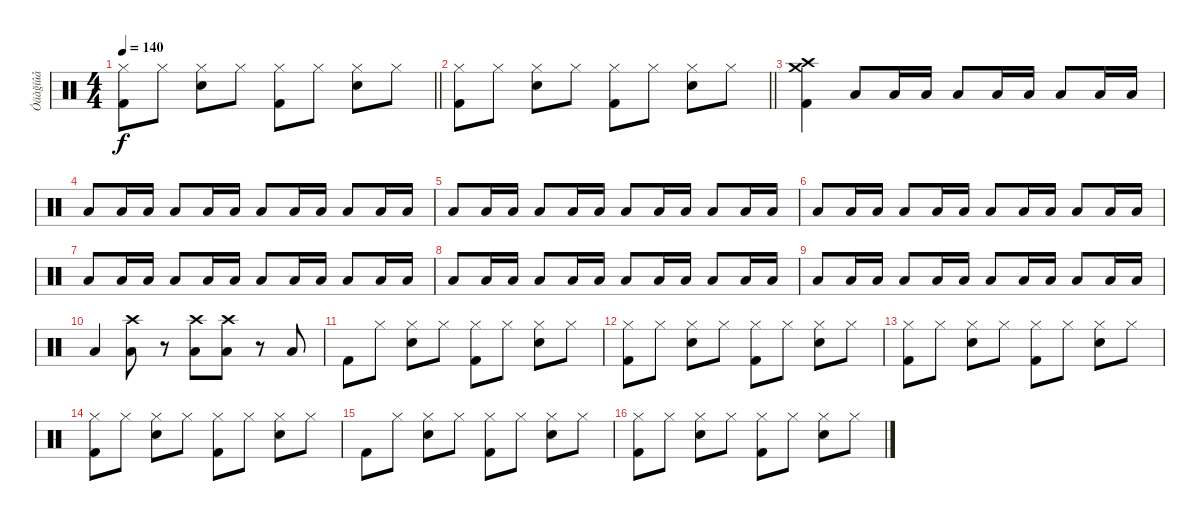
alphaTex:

\track ("Óäàğíûå" "Óäàğíûå") {instrument percussion}
\staff {score}
\articulation defaults
\ts (4 4)
\tempo 140
\clef neutral
\barLineRight lightlight
\ks c
("Hi-Hat (closed)" "Kick (hit) 2").8{dy f} "Hi-Hat (closed)".8 ("Hi-Hat (closed)" "Snare (hit) 2").8 "Hi-Hat (closed)".8 ("Hi-Hat (closed)" "Kick (hit) 2").8 "Hi-Hat (closed)".8 ("Hi-Hat (closed)" "Snare (hit) 2").8 "Hi-Hat (closed)".8 |
\barLineRight lightlight
("Hi-Hat (closed)" "Kick (hit) 2").8 "Hi-Hat (closed)".8 ("Hi-Hat (closed)" "Snare (hit) 2").8 "Hi-Hat (closed)".8 ("Hi-Hat (closed)" "Kick (hit) 2").8 "Hi-Hat (closed)".8 ("Hi-Hat (closed)" "Snare (hit) 2").8 "Hi-Hat (closed)".8 |
("Crash high (hit)" "Kick (hit) 2" "Crash medium (hit)").4 "Low Tom (hit)".8 "Low Tom (hit)".16 "Low Tom (hit)".16 "Low Tom (hit)".8 "Low Tom (hit)".16 "Low Tom (hit)".16 "Low Tom (hit)".8 "Low Tom (hit)".16 "Low Tom (hit)".16 |
"Low Tom (hit)".8 "Low Tom (hit)".16 "Low Tom (hit)".16 "Low Tom (hit)".8 "Low Tom (hit)".16 "Low Tom (hit)".16 "Low Tom (hit)".8 "Low Tom (hit)".16 "Low Tom (hit)".16 "Low Tom (hit)".8 "Low Tom (hit)".16 "Low Tom (hit)".16 |
"Low Tom (hit)".8 "Low Tom (hit)".16 "Low Tom (hit)".16 "Low Tom (hit)".8 "Low Tom (hit)".16 "Low Tom (hit)".16 "Low Tom (hit)".8 "Low Tom (hit)".16 "Low Tom (hit)".16 "Low Tom (hit)".8 "Low Tom (hit)".16 "Low Tom (hit)".16 |
"Low Tom (hit)".8 "Low Tom (hit)".16 "Low Tom (hit)".16 "Low Tom (hit)".8 "Low Tom (hit)".16 "Low Tom (hit)".16 "Low Tom (hit)".8 "Low Tom (hit)".16 "Low Tom (hit)".16 "Low Tom (hit)".8 "Low Tom (hit)".16 "Low Tom (hit)".16 |
"Low Tom (hit)".8 "Low Tom (hit)".16 "Low Tom (hit)".16 "Low Tom (hit)".8 "Low Tom (hit)".16 "Low Tom (hit)".16 "Low Tom (hit)".8 "Low Tom (hit)".16 "Low Tom (hit)".16 "Low Tom (hit)".8 "Low Tom (hit)".16 "Low Tom (hit)".16 |
"Low Tom (hit)".8 "Low Tom (hit)".16 "Low Tom (hit)".16 "Low Tom (hit)".8 "Low Tom (hit)".16 "Low Tom (hit)".16 "Low Tom (hit)".8 "Low Tom (hit)".16 "Low Tom (hit)".16 "Low Tom (hit)".8 "Low Tom (hit)".16 "Low Tom (hit)".16 |
"Low Tom (hit)".8 "Low Tom (hit)".16 "Low Tom (hit)".16 "Low Tom (hit)".8 "Low Tom (hit)".16 "Low Tom (hit)".16 "Low Tom (hit)".8 "Low Tom (hit)".16 "Low Tom (hit)".16 "Low Tom (hit)".8 "Low Tom (hit)".16 "Low Tom (hit)".16 |
"Low Tom (hit)".4 ("Crash high (hit)" "Low Tom (hit)").8 r.8 ("Crash high (hit)" "Low Tom (hit)").8 ("Crash high (hit)" "Low Tom (hit)").8 r.8 "Low Tom (hit)".8 |
"Kick (hit) 2".8 "Hi-Hat (closed)".8 ("Hi-Hat (closed)" "Snare (hit) 2").8 "Hi-Hat (closed)".8 ("Hi-Hat (closed)" "Kick (hit) 2").8 "Hi-Hat (closed)".8 ("Hi-Hat (closed)" "Snare (hit) 2").8 "Hi-Hat (closed)".8 |
("Hi-Hat (closed)" "Kick (hit) 2").8 "Hi-Hat (closed)".8 ("Hi-Hat (closed)" "Snare (hit) 2").8 "Hi-Hat (closed)".8 ("Hi-Hat (closed)" "Kick (hit) 2").8 "Hi-Hat (closed)".8 ("Hi-Hat (closed)" "Snare (hit) 2").8 "Hi-Hat (closed)".8 |
("Hi-Hat (closed)" "Kick (hit) 2").8 "Hi-Hat (closed)".8 ("Hi-Hat (closed)" "Snare (hit) 2").8 "Hi-Hat (closed)".8 ("Hi-Hat (closed)" "Kick (hit) 2").8 "Hi-Hat (closed)".8 ("Hi-Hat (closed)" "Snare (hit) 2").8 "Hi-Hat (closed)".8 |
("Hi-Hat (closed)" "Kick (hit) 2").8 "Hi-Hat (closed)".8 ("Hi-Hat (closed)" "Snare (hit) 2").8 "Hi-Hat (closed)".8 ("Hi-Hat (closed)" "Kick (hit) 2").8 "Hi-Hat (closed)".8 ("Hi-Hat (closed)" "Snare (hit) 2").8 "Hi-Hat (closed)".8 |
"Kick (hit) 2".8 "Hi-Hat (closed)".8 ("Hi-Hat (closed)" "Snare (hit) 2").8 "Hi-Hat (closed)".8 ("Hi-Hat (closed)" "Kick (hit) 2").8 "Hi-Hat (closed)".8 ("Hi-Hat (closed)" "Snare (hit) 2").8 "Hi-Hat (closed)".8 |
("Hi-Hat (closed)" "Kick (hit) 2").8 "Hi-Hat (closed)".8 ("Hi-Hat (closed)" "Snare (hit) 2").8 "Hi-Hat (closed)".8 ("Hi-Hat (closed)" "Kick (hit) 2").8 "Hi-Hat (closed)".8 ("Hi-Hat (closed)" "Snare (hit) 2").8 "Hi-Hat (closed)".8
